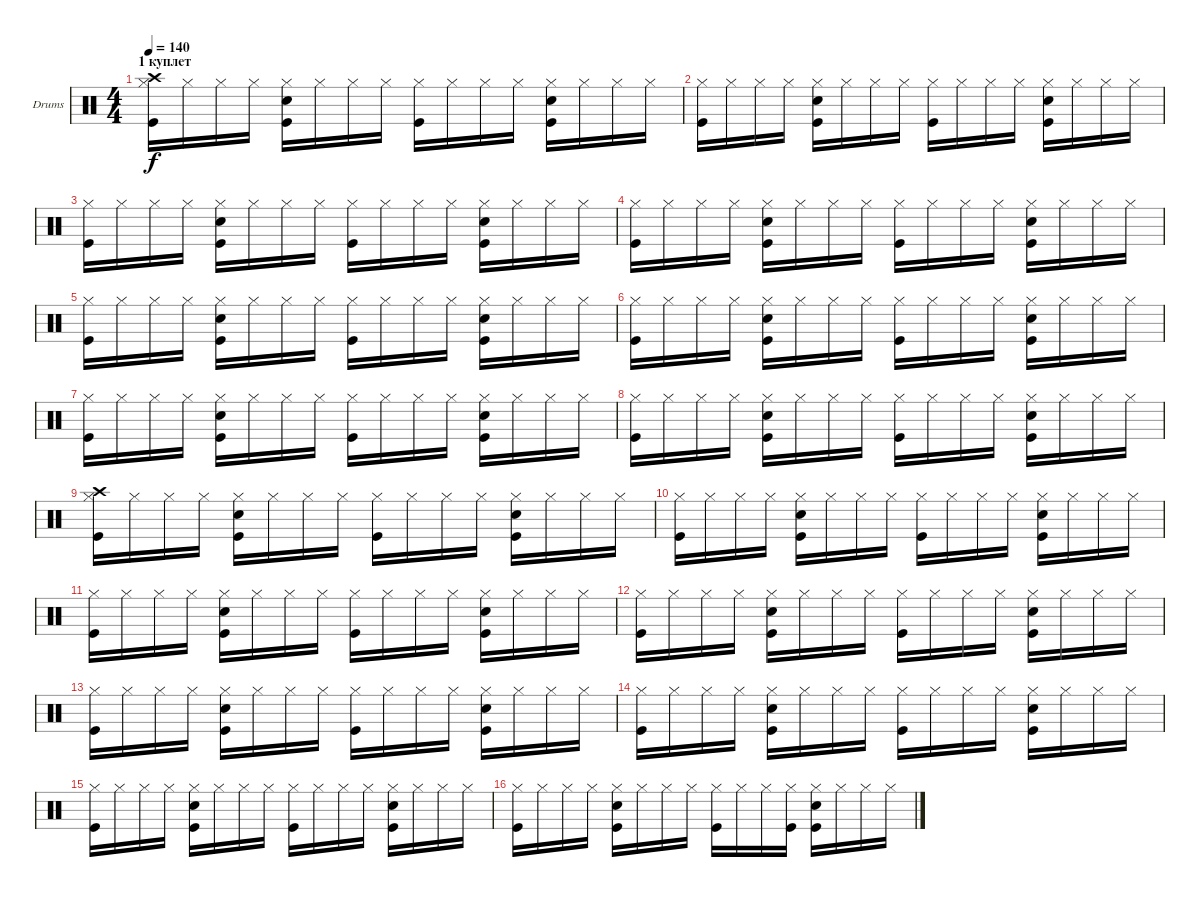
\defaultSystemsLayout 4
\bracketExtendMode groupsimilarinstruments
\firstSystemTrackNameOrientation horizontal
\otherSystemsTrackNameOrientation horizontal
\track ("Drumkit" "Drums") {instrument percussion}
\staff {score}
\articulation defaults
\ts (4 4)
\section ("" "1 куплет")
\tempo 140
\clef neutral
\ks c
("Hi-Hat (closed)" "Kick (hit)" "Crash high (hit)").16{dy f} "Hi-Hat (closed)".16 "Hi-Hat (closed)".16 "Hi-Hat (closed)".16 ("Hi-Hat (closed)" "Kick (hit)" "Snare (hit) 2").16 "Hi-Hat (closed)".16 "Hi-Hat (closed)".16 "Hi-Hat (closed)".16 ("Hi-Hat (closed)" "Kick (hit)").16 "Hi-Hat (closed)".16 "Hi-Hat (closed)".16 "Hi-Hat (closed)".16 ("Hi-Hat (closed)" "Kick (hit)" "Snare (hit) 2").16 "Hi-Hat (closed)".16 "Hi-Hat (closed)".16 "Hi-Hat (closed)".16 |
("Hi-Hat (closed)" "Kick (hit)").16 "Hi-Hat (closed)".16 "Hi-Hat (closed)".16 "Hi-Hat (closed)".16 ("Hi-Hat (closed)" "Kick (hit)" "Snare (hit) 2").16 "Hi-Hat (closed)".16 "Hi-Hat (closed)".16 "Hi-Hat (closed)".16 ("Hi-Hat (closed)" "Kick (hit)").16 "Hi-Hat (closed)".16 "Hi-Hat (closed)".16 "Hi-Hat (closed)".16 ("Hi-Hat (closed)" "Kick (hit)" "Snare (hit) 2").16 "Hi-Hat (closed)".16 "Hi-Hat (closed)".16 "Hi-Hat (closed)".16 |
("Hi-Hat (closed)" "Kick (hit)").16 "Hi-Hat (closed)".16 "Hi-Hat (closed)".16 "Hi-Hat (closed)".16 ("Hi-Hat (closed)" "Kick (hit)" "Snare (hit) 2").16 "Hi-Hat (closed)".16 "Hi-Hat (closed)".16 "Hi-Hat (closed)".16 ("Hi-Hat (closed)" "Kick (hit)").16 "Hi-Hat (closed)".16 "Hi-Hat (closed)".16 "Hi-Hat (closed)".16 ("Hi-Hat (closed)" "Kick (hit)" "Snare (hit) 2").16 "Hi-Hat (closed)".16 "Hi-Hat (closed)".16 "Hi-Hat (closed)".16 |
("Hi-Hat (closed)" "Kick (hit)").16 "Hi-Hat (closed)".16 "Hi-Hat (closed)".16 "Hi-Hat (closed)".16 ("Hi-Hat (closed)" "Kick (hit)" "Snare (hit) 2").16 "Hi-Hat (closed)".16 "Hi-Hat (closed)".16 "Hi-Hat (closed)".16 ("Hi-Hat (closed)" "Kick (hit)").16 "Hi-Hat (closed)".16 "Hi-Hat (closed)".16 "Hi-Hat (closed)".16 ("Hi-Hat (closed)" "Kick (hit)" "Snare (hit) 2").16 "Hi-Hat (closed)".16 "Hi-Hat (closed)".16 "Hi-Hat (closed)".16 |
("Hi-Hat (closed)" "Kick (hit)").16 "Hi-Hat (closed)".16 "Hi-Hat (closed)".16 "Hi-Hat (closed)".16 ("Hi-Hat (closed)" "Kick (hit)" "Snare (hit) 2").16 "Hi-Hat (closed)".16 "Hi-Hat (closed)".16 "Hi-Hat (closed)".16 ("Hi-Hat (closed)" "Kick (hit)").16 "Hi-Hat (closed)".16 "Hi-Hat (closed)".16 "Hi-Hat (closed)".16 ("Hi-Hat (closed)" "Kick (hit)" "Snare (hit) 2").16 "Hi-Hat (closed)".16 "Hi-Hat (closed)".16 "Hi-Hat (closed)".16 |
("Hi-Hat (closed)" "Kick (hit)").16 "Hi-Hat (closed)".16 "Hi-Hat (closed)".16 "Hi-Hat (closed)".16 ("Hi-Hat (closed)" "Kick (hit)" "Snare (hit) 2").16 "Hi-Hat (closed)".16 "Hi-Hat (closed)".16 "Hi-Hat (closed)".16 ("Hi-Hat (closed)" "Kick (hit)").16 "Hi-Hat (closed)".16 "Hi-Hat (closed)".16 "Hi-Hat (closed)".16 ("Hi-Hat (closed)" "Kick (hit)" "Snare (hit) 2").16 "Hi-Hat (closed)".16 "Hi-Hat (closed)".16 "Hi-Hat (closed)".16 |
("Hi-Hat (closed)" "Kick (hit)").16 "Hi-Hat (closed)".16 "Hi-Hat (closed)".16 "Hi-Hat (closed)".16 ("Hi-Hat (closed)" "Kick (hit)" "Snare (hit) 2").16 "Hi-Hat (closed)".16 "Hi-Hat (closed)".16 "Hi-Hat (closed)".16 ("Hi-Hat (closed)" "Kick (hit)").16 "Hi-Hat (closed)".16 "Hi-Hat (closed)".16 "Hi-Hat (closed)".16 ("Hi-Hat (closed)" "Kick (hit)" "Snare (hit) 2").16 "Hi-Hat (closed)".16 "Hi-Hat (closed)".16 "Hi-Hat (closed)".16 |
("Hi-Hat (closed)" "Kick (hit)").16 "Hi-Hat (closed)".16 "Hi-Hat (closed)".16 "Hi-Hat (closed)".16 ("Hi-Hat (closed)" "Kick (hit)" "Snare (hit) 2").16 "Hi-Hat (closed)".16 "Hi-Hat (closed)".16 "Hi-Hat (closed)".16 ("Hi-Hat (closed)" "Kick (hit)").16 "Hi-Hat (closed)".16 "Hi-Hat (closed)".16 "Hi-Hat (closed)".16 ("Hi-Hat (closed)" "Kick (hit)" "Snare (hit) 2").16 "Hi-Hat (closed)".16 "Hi-Hat (closed)".16 "Hi-Hat (closed)".16 |
("Hi-Hat (closed)" "Kick (hit)" "Crash high (hit)").16 "Hi-Hat (closed)".16 "Hi-Hat (closed)".16 "Hi-Hat (closed)".16 ("Hi-Hat (closed)" "Kick (hit)" "Snare (hit) 2").16 "Hi-Hat (closed)".16 "Hi-Hat (closed)".16 "Hi-Hat (closed)".16 ("Hi-Hat (closed)" "Kick (hit)").16 "Hi-Hat (closed)".16 "Hi-Hat (closed)".16 "Hi-Hat (closed)".16 ("Hi-Hat (closed)" "Kick (hit)" "Snare (hit) 2").16 "Hi-Hat (closed)".16 "Hi-Hat (closed)".16 "Hi-Hat (closed)".16 |
("Hi-Hat (closed)" "Kick (hit)").16 "Hi-Hat (closed)".16 "Hi-Hat (closed)".16 "Hi-Hat (closed)".16 ("Hi-Hat (closed)" "Kick (hit)" "Snare (hit) 2").16 "Hi-Hat (closed)".16 "Hi-Hat (closed)".16 "Hi-Hat (closed)".16 ("Hi-Hat (closed)" "Kick (hit)").16 "Hi-Hat (closed)".16 "Hi-Hat (closed)".16 "Hi-Hat (closed)".16 ("Hi-Hat (closed)" "Kick (hit)" "Snare (hit) 2").16 "Hi-Hat (closed)".16 "Hi-Hat (closed)".16 "Hi-Hat (closed)".16 |
("Hi-Hat (closed)" "Kick (hit)").16 "Hi-Hat (closed)".16 "Hi-Hat (closed)".16 "Hi-Hat (closed)".16 ("Hi-Hat (closed)" "Kick (hit)" "Snare (hit) 2").16 "Hi-Hat (closed)".16 "Hi-Hat (closed)".16 "Hi-Hat (closed)".16 ("Hi-Hat (closed)" "Kick (hit)").16 "Hi-Hat (closed)".16 "Hi-Hat (closed)".16 "Hi-Hat (closed)".16 ("Hi-Hat (closed)" "Kick (hit)" "Snare (hit) 2").16 "Hi-Hat (closed)".16 "Hi-Hat (closed)".16 "Hi-Hat (closed)".16 |
("Hi-Hat (closed)" "Kick (hit)").16 "Hi-Hat (closed)".16 "Hi-Hat (closed)".16 "Hi-Hat (closed)".16 ("Hi-Hat (closed)" "Kick (hit)" "Snare (hit) 2").16 "Hi-Hat (closed)".16 "Hi-Hat (closed)".16 "Hi-Hat (closed)".16 ("Hi-Hat (closed)" "Kick (hit)").16 "Hi-Hat (closed)".16 "Hi-Hat (closed)".16 "Hi-Hat (closed)".16 ("Hi-Hat (closed)" "Kick (hit)" "Snare (hit) 2").16 "Hi-Hat (closed)".16 "Hi-Hat (closed)".16 "Hi-Hat (closed)".16 |
("Hi-Hat (closed)" "Kick (hit)").16 "Hi-Hat (closed)".16 "Hi-Hat (closed)".16 "Hi-Hat (closed)".16 ("Hi-Hat (closed)" "Kick (hit)" "Snare (hit) 2").16 "Hi-Hat (closed)".16 "Hi-Hat (closed)".16 "Hi-Hat (closed)".16 ("Hi-Hat (closed)" "Kick (hit)").16 "Hi-Hat (closed)".16 "Hi-Hat (closed)".16 "Hi-Hat (closed)".16 ("Hi-Hat (closed)" "Kick (hit)" "Snare (hit) 2").16 "Hi-Hat (closed)".16 "Hi-Hat (closed)".16 "Hi-Hat (closed)".16 |
("Hi-Hat (closed)" "Kick (hit)").16 "Hi-Hat (closed)".16 "Hi-Hat (closed)".16 "Hi-Hat (closed)".16 ("Hi-Hat (closed)" "Kick (hit)" "Snare (hit) 2").16 "Hi-Hat (closed)".16 "Hi-Hat (closed)".16 "Hi-Hat (closed)".16 ("Hi-Hat (closed)" "Kick (hit)").16 "Hi-Hat (closed)".16 "Hi-Hat (closed)".16 "Hi-Hat (closed)".16 ("Hi-Hat (closed)" "Kick (hit)" "Snare (hit) 2").16 "Hi-Hat (closed)".16 "Hi-Hat (closed)".16 "Hi-Hat (closed)".16 |
("Hi-Hat (closed)" "Kick (hit)").16 "Hi-Hat (closed)".16 "Hi-Hat (closed)".16 "Hi-Hat (closed)".16 ("Hi-Hat (closed)" "Kick (hit)" "Snare (hit) 2").16 "Hi-Hat (closed)".16 "Hi-Hat (closed)".16 "Hi-Hat (closed)".16 ("Hi-Hat (closed)" "Kick (hit)").16 "Hi-Hat (closed)".16 "Hi-Hat (closed)".16 "Hi-Hat (closed)".16 ("Hi-Hat (closed)" "Kick (hit)" "Snare (hit) 2").16 "Hi-Hat (closed)".16 "Hi-Hat (closed)".16 "Hi-Hat (closed)".16 |
("Hi-Hat (closed)" "Kick (hit)").16 "Hi-Hat (closed)".16 "Hi-Hat (closed)".16 "Hi-Hat (closed)".16 ("Hi-Hat (closed)" "Kick (hit)" "Snare (hit) 2").16 "Hi-Hat (closed)".16 "Hi-Hat (closed)".16 "Hi-Hat (closed)".16 ("Hi-Hat (closed)" "Kick (hit)").16 "Hi-Hat (closed)".16 "Hi-Hat (closed)".16 ("Hi-Hat (closed)" "Kick (hit)").16 ("Hi-Hat (closed)" "Kick (hit)" "Snare (hit) 2").16 "Hi-Hat (closed)".16 "Hi-Hat (closed)".16 "Hi-Hat (closed)".16
